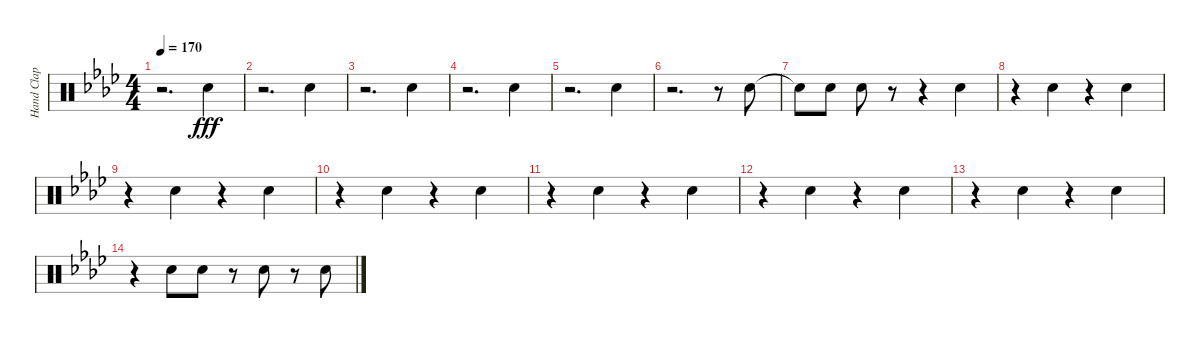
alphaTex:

\track ("Hand Clap" "Hand Clap") {instrument percussion}
\staff {score}
\articulation defaults
\ts (4 4)
\tempo 170
\clef neutral
\ks ab
r.2{d dy fff} "Hand Clap (hit)".4 |
r.2{d} "Hand Clap (hit)".4 |
r.2{d} "Hand Clap (hit)".4 |
r.2{d} "Hand Clap (hit)".4 |
r.2{d} "Hand Clap (hit)".4 |
r.2{d} r.8 "Hand Clap (hit)".8 |
"Snare (hit)"{t}.8 "Hand Clap (hit)".8 "Hand Clap (hit)".8 r.8 r.4 "Hand Clap (hit)".4 |
r.4 "Hand Clap (hit)".4 r.4 "Hand Clap (hit)".4 |
r.4 "Hand Clap (hit)".4 r.4 "Hand Clap (hit)".4 |
r.4 "Hand Clap (hit)".4 r.4 "Hand Clap (hit)".4 |
r.4 "Hand Clap (hit)".4 r.4 "Hand Clap (hit)".4 |
r.4 "Hand Clap (hit)".4 r.4 "Hand Clap (hit)".4 |
r.4 "Hand Clap (hit)".4 r.4 "Hand Clap (hit)".4 |
r.4 "Hand Clap (hit)".8 "Hand Clap (hit)".8 r.8 "Hand Clap (hit)".8 r.8 "Hand Clap (hit)".8
